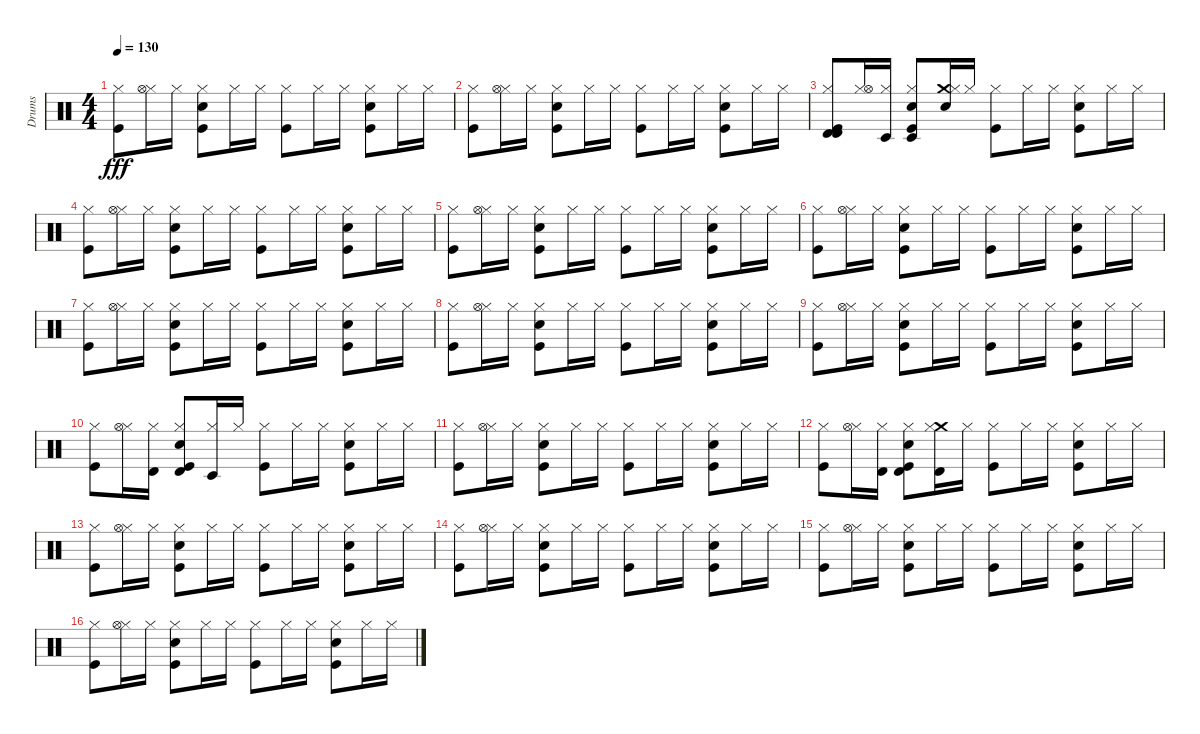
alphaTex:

\track ("Drums" "Drums") {instrument percussion}
\staff {score}
\articulation defaults
\ts (4 4)
\tempo 130
\clef neutral
\ks c
("Kick (hit)" "Hi-Hat (closed)").8{dy fff} ("Hi-Hat (closed)" "Hi-Hat (open)").16 "Hi-Hat (closed)".16 ("Kick (hit)" "Electric Snare (hit)" "Hi-Hat (closed)").8 "Hi-Hat (closed)".16 "Hi-Hat (closed)".16 ("Kick (hit)" "Hi-Hat (closed)").8 "Hi-Hat (closed)".16 "Hi-Hat (closed)".16 ("Kick (hit)" "Electric Snare (hit)" "Hi-Hat (closed)").8 "Hi-Hat (closed)".16 "Hi-Hat (closed)".16 |
("Kick (hit)" "Hi-Hat (closed)").8 ("Hi-Hat (closed)" "Hi-Hat (open)").16 "Hi-Hat (closed)".16 ("Kick (hit)" "Electric Snare (hit)" "Hi-Hat (closed)").8 "Hi-Hat (closed)".16 "Hi-Hat (closed)".16 ("Kick (hit)" "Hi-Hat (closed)").8 "Hi-Hat (closed)".16 "Hi-Hat (closed)".16 ("Kick (hit)" "Electric Snare (hit)" "Hi-Hat (closed)").8 "Hi-Hat (closed)".16 "Hi-Hat (closed)".16 |
("Kick (hit)" "Hi-Hat (closed)" "Timbale high (hit)" "Timbale high (hit)").8 ("Hi-Hat (closed)" "Hi-Hat (open)").16 ("Hi-Hat (closed)" "Timbale low (hit)").16 ("Kick (hit)" "Electric Snare (hit)" "Hi-Hat (closed)" "Timbale low (hit)").8 ("Crash medium (hit)" "Electric Snare (hit)" "Hi-Hat (closed)").16 "Hi-Hat (closed)".16 ("Kick (hit)" "Hi-Hat (closed)").8 "Hi-Hat (closed)".16 "Hi-Hat (closed)".16 ("Kick (hit)" "Electric Snare (hit)" "Hi-Hat (closed)").8 "Hi-Hat (closed)".16 "Hi-Hat (closed)".16 |
("Kick (hit)" "Hi-Hat (closed)").8 ("Hi-Hat (closed)" "Hi-Hat (open)").16 "Hi-Hat (closed)".16 ("Kick (hit)" "Electric Snare (hit)" "Hi-Hat (closed)").8 "Hi-Hat (closed)".16 "Hi-Hat (closed)".16 ("Kick (hit)" "Hi-Hat (closed)").8 "Hi-Hat (closed)".16 "Hi-Hat (closed)".16 ("Kick (hit)" "Electric Snare (hit)" "Hi-Hat (closed)").8 "Hi-Hat (closed)".16 "Hi-Hat (closed)".16 |
("Kick (hit)" "Hi-Hat (closed)").8 ("Hi-Hat (closed)" "Hi-Hat (open)").16 "Hi-Hat (closed)".16 ("Kick (hit)" "Electric Snare (hit)" "Hi-Hat (closed)").8 "Hi-Hat (closed)".16 "Hi-Hat (closed)".16 ("Kick (hit)" "Hi-Hat (closed)").8 "Hi-Hat (closed)".16 "Hi-Hat (closed)".16 ("Kick (hit)" "Electric Snare (hit)" "Hi-Hat (closed)").8 "Hi-Hat (closed)".16 "Hi-Hat (closed)".16 |
("Kick (hit)" "Hi-Hat (closed)").8 ("Hi-Hat (closed)" "Hi-Hat (open)").16 "Hi-Hat (closed)".16 ("Kick (hit)" "Electric Snare (hit)" "Hi-Hat (closed)").8 "Hi-Hat (closed)".16 "Hi-Hat (closed)".16 ("Kick (hit)" "Hi-Hat (closed)").8 "Hi-Hat (closed)".16 "Hi-Hat (closed)".16 ("Kick (hit)" "Electric Snare (hit)" "Hi-Hat (closed)").8 "Hi-Hat (closed)".16 "Hi-Hat (closed)".16 |
("Kick (hit)" "Hi-Hat (closed)").8 ("Hi-Hat (closed)" "Hi-Hat (open)").16 "Hi-Hat (closed)".16 ("Kick (hit)" "Electric Snare (hit)" "Hi-Hat (closed)").8 "Hi-Hat (closed)".16 "Hi-Hat (closed)".16 ("Kick (hit)" "Hi-Hat (closed)").8 "Hi-Hat (closed)".16 "Hi-Hat (closed)".16 ("Kick (hit)" "Electric Snare (hit)" "Hi-Hat (closed)").8 "Hi-Hat (closed)".16 "Hi-Hat (closed)".16 |
("Kick (hit)" "Hi-Hat (closed)").8 ("Hi-Hat (closed)" "Hi-Hat (open)").16 "Hi-Hat (closed)".16 ("Kick (hit)" "Electric Snare (hit)" "Hi-Hat (closed)").8 "Hi-Hat (closed)".16 "Hi-Hat (closed)".16 ("Kick (hit)" "Hi-Hat (closed)").8 "Hi-Hat (closed)".16 "Hi-Hat (closed)".16 ("Kick (hit)" "Electric Snare (hit)" "Hi-Hat (closed)").8 "Hi-Hat (closed)".16 "Hi-Hat (closed)".16 |
("Kick (hit)" "Hi-Hat (closed)").8 ("Hi-Hat (closed)" "Hi-Hat (open)").16 "Hi-Hat (closed)".16 ("Kick (hit)" "Electric Snare (hit)" "Hi-Hat (closed)").8 "Hi-Hat (closed)".16 "Hi-Hat (closed)".16 ("Kick (hit)" "Hi-Hat (closed)").8 "Hi-Hat (closed)".16 "Hi-Hat (closed)".16 ("Kick (hit)" "Electric Snare (hit)" "Hi-Hat (closed)").8 "Hi-Hat (closed)".16 "Hi-Hat (closed)".16 |
("Kick (hit)" "Hi-Hat (closed)").8 ("Hi-Hat (closed)" "Hi-Hat (open)").16 ("Hi-Hat (closed)" "Timbale high (hit)").16 ("Kick (hit)" "Electric Snare (hit)" "Hi-Hat (closed)" "Timbale high (hit)").8 ("Hi-Hat (closed)" "Timbale low (hit)").16 "Hi-Hat (closed)".16 ("Kick (hit)" "Hi-Hat (closed)").8 "Hi-Hat (closed)".16 "Hi-Hat (closed)".16 ("Kick (hit)" "Electric Snare (hit)" "Hi-Hat (closed)").8 "Hi-Hat (closed)".16 "Hi-Hat (closed)".16 |
("Kick (hit)" "Hi-Hat (closed)").8 ("Hi-Hat (closed)" "Hi-Hat (open)").16 "Hi-Hat (closed)".16 ("Kick (hit)" "Electric Snare (hit)" "Hi-Hat (closed)").8 "Hi-Hat (closed)".16 "Hi-Hat (closed)".16 ("Kick (hit)" "Hi-Hat (closed)").8 "Hi-Hat (closed)".16 "Hi-Hat (closed)".16 ("Kick (hit)" "Electric Snare (hit)" "Hi-Hat (closed)").8 "Hi-Hat (closed)".16 "Hi-Hat (closed)".16 |
("Kick (hit)" "Hi-Hat (closed)").8 ("Hi-Hat (closed)" "Hi-Hat (open)").16 ("Hi-Hat (closed)" "Timbale high (hit)").16 ("Kick (hit)" "Electric Snare (hit)" "Hi-Hat (closed)" "Timbale high (hit)").8 ("Crash medium (hit)" "Hi-Hat (closed)" "Timbale high (hit)").16 "Hi-Hat (closed)".16 ("Kick (hit)" "Hi-Hat (closed)").8 "Hi-Hat (closed)".16 "Hi-Hat (closed)".16 ("Kick (hit)" "Electric Snare (hit)" "Hi-Hat (closed)").8 "Hi-Hat (closed)".16 "Hi-Hat (closed)".16 |
("Kick (hit)" "Hi-Hat (closed)").8 ("Hi-Hat (closed)" "Hi-Hat (open)").16 "Hi-Hat (closed)".16 ("Kick (hit)" "Electric Snare (hit)" "Hi-Hat (closed)").8 "Hi-Hat (closed)".16 "Hi-Hat (closed)".16 ("Kick (hit)" "Hi-Hat (closed)").8 "Hi-Hat (closed)".16 "Hi-Hat (closed)".16 ("Kick (hit)" "Electric Snare (hit)" "Hi-Hat (closed)").8 "Hi-Hat (closed)".16 "Hi-Hat (closed)".16 |
("Kick (hit)" "Hi-Hat (closed)").8 ("Hi-Hat (closed)" "Hi-Hat (open)").16 "Hi-Hat (closed)".16 ("Kick (hit)" "Electric Snare (hit)" "Hi-Hat (closed)").8 "Hi-Hat (closed)".16 "Hi-Hat (closed)".16 ("Kick (hit)" "Hi-Hat (closed)").8 "Hi-Hat (closed)".16 "Hi-Hat (closed)".16 ("Kick (hit)" "Electric Snare (hit)" "Hi-Hat (closed)").8 "Hi-Hat (closed)".16 "Hi-Hat (closed)".16 |
("Kick (hit)" "Hi-Hat (closed)").8 ("Hi-Hat (closed)" "Hi-Hat (open)").16 "Hi-Hat (closed)".16 ("Kick (hit)" "Electric Snare (hit)" "Hi-Hat (closed)").8 "Hi-Hat (closed)".16 "Hi-Hat (closed)".16 ("Kick (hit)" "Hi-Hat (closed)").8 "Hi-Hat (closed)".16 "Hi-Hat (closed)".16 ("Kick (hit)" "Electric Snare (hit)" "Hi-Hat (closed)").8 "Hi-Hat (closed)".16 "Hi-Hat (closed)".16 |
("Kick (hit)" "Hi-Hat (closed)").8 ("Hi-Hat (closed)" "Hi-Hat (open)").16 "Hi-Hat (closed)".16 ("Kick (hit)" "Electric Snare (hit)" "Hi-Hat (closed)").8 "Hi-Hat (closed)".16 "Hi-Hat (closed)".16 ("Kick (hit)" "Hi-Hat (closed)").8 "Hi-Hat (closed)".16 "Hi-Hat (closed)".16 ("Kick (hit)" "Electric Snare (hit)" "Hi-Hat (closed)").8 "Hi-Hat (closed)".16 "Hi-Hat (closed)".16
